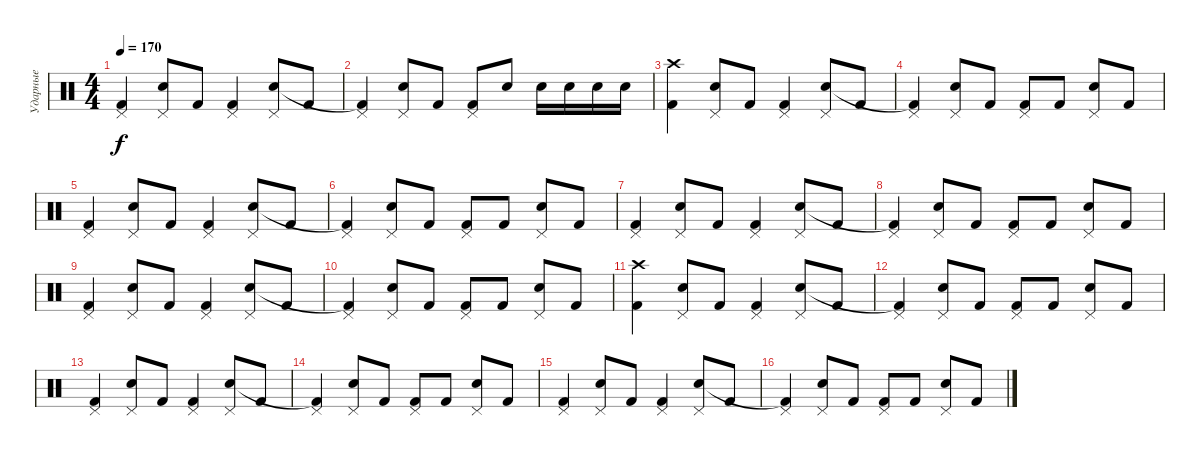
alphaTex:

\track ("Ударные" "Ударные") {instrument percussion}
\staff {score}
\articulation defaults
\ts (4 4)
\tempo 170
\clef neutral
\ks c
("Pedal Hi-Hat (hit)" "Kick (hit) 2").4{dy f} ("Pedal Hi-Hat (hit)" "Snare (hit) 2").8 "Kick (hit) 2".8 ("Pedal Hi-Hat (hit)" "Kick (hit) 2").4 ("Pedal Hi-Hat (hit)" "Snare (hit) 2").8 "Kick (hit) 2".8 |
("Pedal Hi-Hat (hit)" "Kick (hit) 2"{t}).4 ("Pedal Hi-Hat (hit)" "Snare (hit) 2").8 "Kick (hit) 2".8 ("Pedal Hi-Hat (hit)" "Kick (hit) 2").8 "Snare (hit) 2".8 "Snare (hit) 2".16 "Snare (hit) 2".16 "Snare (hit) 2".16 "Snare (hit) 2".16 |
("Crash high (hit)" "Kick (hit) 2").4 ("Pedal Hi-Hat (hit)" "Snare (hit) 2").8 "Kick (hit) 2".8 ("Pedal Hi-Hat (hit)" "Kick (hit) 2").4 ("Pedal Hi-Hat (hit)" "Snare (hit) 2").8 "Kick (hit) 2".8 |
("Pedal Hi-Hat (hit)" "Kick (hit) 2"{t}).4 ("Pedal Hi-Hat (hit)" "Snare (hit) 2").8 "Kick (hit) 2".8 ("Pedal Hi-Hat (hit)" "Kick (hit) 2").8 "Kick (hit) 2".8 ("Pedal Hi-Hat (hit)" "Snare (hit) 2").8 "Kick (hit) 2".8 |
("Pedal Hi-Hat (hit)" "Kick (hit) 2").4 ("Pedal Hi-Hat (hit)" "Snare (hit) 2").8 "Kick (hit) 2".8 ("Pedal Hi-Hat (hit)" "Kick (hit) 2").4 ("Pedal Hi-Hat (hit)" "Snare (hit) 2").8 "Kick (hit) 2".8 |
("Pedal Hi-Hat (hit)" "Kick (hit) 2"{t}).4 ("Pedal Hi-Hat (hit)" "Snare (hit) 2").8 "Kick (hit) 2".8 ("Pedal Hi-Hat (hit)" "Kick (hit) 2").8 "Kick (hit) 2".8 ("Pedal Hi-Hat (hit)" "Snare (hit) 2").8 "Kick (hit) 2".8 |
("Pedal Hi-Hat (hit)" "Kick (hit) 2").4 ("Pedal Hi-Hat (hit)" "Snare (hit) 2").8 "Kick (hit) 2".8 ("Pedal Hi-Hat (hit)" "Kick (hit) 2").4 ("Pedal Hi-Hat (hit)" "Snare (hit) 2").8 "Kick (hit) 2".8 |
("Pedal Hi-Hat (hit)" "Kick (hit) 2"{t}).4 ("Pedal Hi-Hat (hit)" "Snare (hit) 2").8 "Kick (hit) 2".8 ("Pedal Hi-Hat (hit)" "Kick (hit) 2").8 "Kick (hit) 2".8 ("Pedal Hi-Hat (hit)" "Snare (hit) 2").8 "Kick (hit) 2".8 |
("Pedal Hi-Hat (hit)" "Kick (hit) 2").4 ("Pedal Hi-Hat (hit)" "Snare (hit) 2").8 "Kick (hit) 2".8 ("Pedal Hi-Hat (hit)" "Kick (hit) 2").4 ("Pedal Hi-Hat (hit)" "Snare (hit) 2").8 "Kick (hit) 2".8 |
("Pedal Hi-Hat (hit)" "Kick (hit) 2"{t}).4 ("Pedal Hi-Hat (hit)" "Snare (hit) 2").8 "Kick (hit) 2".8 ("Pedal Hi-Hat (hit)" "Kick (hit) 2").8 "Kick (hit) 2".8 ("Pedal Hi-Hat (hit)" "Snare (hit) 2").8 "Kick (hit) 2".8 |
("Crash high (hit)" "Kick (hit) 2").4 ("Pedal Hi-Hat (hit)" "Snare (hit) 2").8 "Kick (hit) 2".8 ("Pedal Hi-Hat (hit)" "Kick (hit) 2").4 ("Pedal Hi-Hat (hit)" "Snare (hit) 2").8 "Kick (hit) 2".8 |
("Pedal Hi-Hat (hit)" "Kick (hit) 2"{t}).4 ("Pedal Hi-Hat (hit)" "Snare (hit) 2").8 "Kick (hit) 2".8 ("Pedal Hi-Hat (hit)" "Kick (hit) 2").8 "Kick (hit) 2".8 ("Pedal Hi-Hat (hit)" "Snare (hit) 2").8 "Kick (hit) 2".8 |
("Pedal Hi-Hat (hit)" "Kick (hit) 2").4 ("Pedal Hi-Hat (hit)" "Snare (hit) 2").8 "Kick (hit) 2".8 ("Pedal Hi-Hat (hit)" "Kick (hit) 2").4 ("Pedal Hi-Hat (hit)" "Snare (hit) 2").8 "Kick (hit) 2".8 |
("Pedal Hi-Hat (hit)" "Kick (hit) 2"{t}).4 ("Pedal Hi-Hat (hit)" "Snare (hit) 2").8 "Kick (hit) 2".8 ("Pedal Hi-Hat (hit)" "Kick (hit) 2").8 "Kick (hit) 2".8 ("Pedal Hi-Hat (hit)" "Snare (hit) 2").8 "Kick (hit) 2".8 |
("Pedal Hi-Hat (hit)" "Kick (hit) 2").4 ("Pedal Hi-Hat (hit)" "Snare (hit) 2").8 "Kick (hit) 2".8 ("Pedal Hi-Hat (hit)" "Kick (hit) 2").4 ("Pedal Hi-Hat (hit)" "Snare (hit) 2").8 "Kick (hit) 2".8 |
("Pedal Hi-Hat (hit)" "Kick (hit) 2"{t}).4 ("Pedal Hi-Hat (hit)" "Snare (hit) 2").8 "Kick (hit) 2".8 ("Pedal Hi-Hat (hit)" "Kick (hit) 2").8 "Kick (hit) 2".8 ("Pedal Hi-Hat (hit)" "Snare (hit) 2").8 "Kick (hit) 2".8
